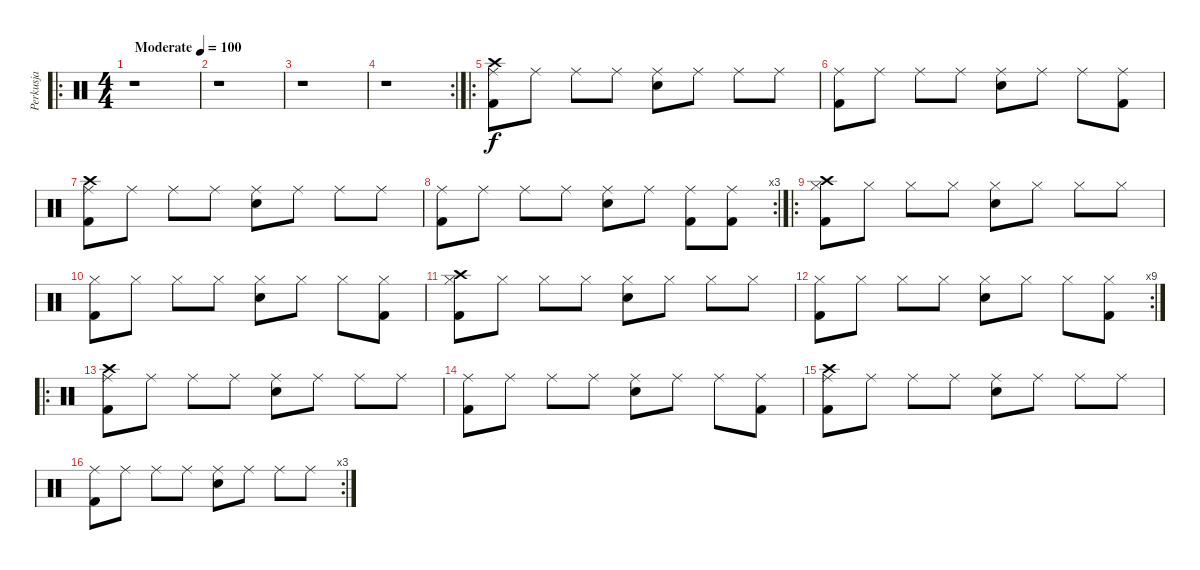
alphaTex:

\track ("Perkusja" "Perkusja") {instrument percussion}
\staff {score}
\articulation defaults
\ro
\ts (4 4)
\tempo (100 "Moderate")
\clef neutral
\ks c
r.1{dy f} |
r.1 |
r.1 |
\rc 2
r.1 |
\ro
("Crash high (hit)" "Ride (middle)" "Kick (hit) 2").8 "Ride (middle)".8 "Ride (middle)".8 "Ride (middle)".8 ("Ride (middle)" "Electric Snare (hit)").8 "Ride (middle)".8 "Ride (middle)".8 "Ride (middle)".8 |
("Ride (middle)" "Kick (hit) 2").8 "Ride (middle)".8 "Ride (middle)".8 "Ride (middle)".8 ("Ride (middle)" "Electric Snare (hit)").8 "Ride (middle)".8 "Ride (middle)".8 ("Ride (middle)" "Kick (hit) 2").8 |
("Crash high (hit)" "Ride (middle)" "Kick (hit) 2").8 "Ride (middle)".8 "Ride (middle)".8 "Ride (middle)".8 ("Ride (middle)" "Electric Snare (hit)").8 "Ride (middle)".8 "Ride (middle)".8 "Ride (middle)".8 |
\rc 3
("Ride (middle)" "Kick (hit) 2").8 "Ride (middle)".8 "Ride (middle)".8 "Ride (middle)".8 ("Ride (middle)" "Electric Snare (hit)").8 "Ride (middle)".8 ("Ride (middle)" "Kick (hit) 2").8 ("Ride (middle)" "Kick (hit) 2").8 |
\ro
("Crash high (hit)" "Hi-Hat (closed)" "Kick (hit) 2").8 "Hi-Hat (closed)".8 "Hi-Hat (closed)".8 "Hi-Hat (closed)".8 ("Hi-Hat (closed)" "Electric Snare (hit)").8 "Hi-Hat (closed)".8 "Hi-Hat (closed)".8 "Hi-Hat (closed)".8 |
("Hi-Hat (closed)" "Kick (hit) 2").8 "Hi-Hat (closed)".8 "Hi-Hat (closed)".8 "Hi-Hat (closed)".8 ("Hi-Hat (closed)" "Electric Snare (hit)").8 "Hi-Hat (closed)".8 "Hi-Hat (closed)".8 ("Hi-Hat (closed)" "Kick (hit) 2").8 |
("Crash high (hit)" "Hi-Hat (closed)" "Kick (hit) 2").8 "Hi-Hat (closed)".8 "Hi-Hat (closed)".8 "Hi-Hat (closed)".8 ("Hi-Hat (closed)" "Electric Snare (hit)").8 "Hi-Hat (closed)".8 "Hi-Hat (closed)".8 "Hi-Hat (closed)".8 |
\rc 9
("Hi-Hat (closed)" "Kick (hit) 2").8 "Hi-Hat (closed)".8 "Hi-Hat (closed)".8 "Hi-Hat (closed)".8 ("Hi-Hat (closed)" "Electric Snare (hit)").8 "Hi-Hat (closed)".8 "Hi-Hat (closed)".8 ("Hi-Hat (closed)" "Kick (hit) 2").8 |
\ro
("Crash high (hit)" "Ride (middle)" "Kick (hit) 2").8 "Ride (middle)".8 "Ride (middle)".8 "Ride (middle)".8 ("Ride (middle)" "Electric Snare (hit)").8 "Ride (middle)".8 "Ride (middle)".8 "Ride (middle)".8 |
("Ride (middle)" "Kick (hit) 2").8 "Ride (middle)".8 "Ride (middle)".8 "Ride (middle)".8 ("Ride (middle)" "Electric Snare (hit)").8 "Ride (middle)".8 "Ride (middle)".8 ("Ride (middle)" "Kick (hit) 2").8 |
("Crash high (hit)" "Ride (middle)" "Kick (hit) 2").8 "Ride (middle)".8 "Ride (middle)".8 "Ride (middle)".8 ("Ride (middle)" "Electric Snare (hit)").8 "Ride (middle)".8 "Ride (middle)".8 "Ride (middle)".8 |
\rc 3
("Ride (middle)" "Kick (hit) 2").8 "Ride (middle)".8 "Ride (middle)".8 "Ride (middle)".8 ("Ride (middle)" "Electric Snare (hit)").8 "Ride (middle)".8 "Ride (middle)".8 "Ride (middle)".8
